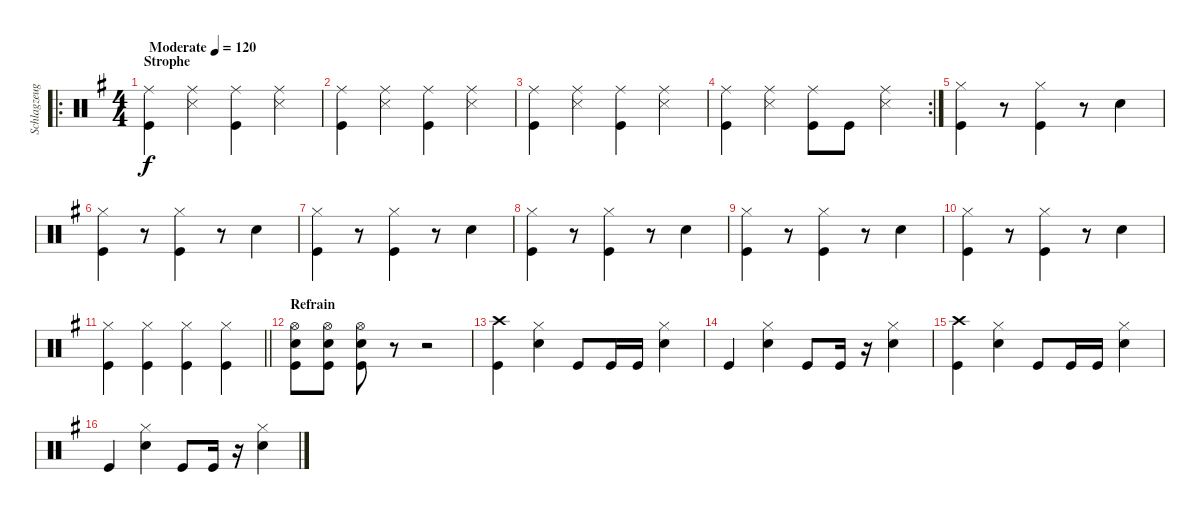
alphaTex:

\track ("Schlagzeug" "Schlagzeug") {instrument percussion}
\staff {score}
\articulation defaults
\ro
\ts (4 4)
\section ("" "Strophe")
\tempo (120 "Moderate")
\clef neutral
\ks g
("Kick (hit)" "Ride (middle)").4{dy f} ("Snare (side stick) 3" "Ride (middle)").4 ("Kick (hit)" "Ride (middle)").4 ("Snare (side stick) 3" "Ride (middle)").4 |
("Kick (hit)" "Ride (middle)").4 ("Snare (side stick) 3" "Ride (middle)").4 ("Kick (hit)" "Ride (middle)").4 ("Snare (side stick) 3" "Ride (middle)").4 |
("Kick (hit)" "Ride (middle)").4 ("Snare (side stick) 3" "Ride (middle)").4 ("Kick (hit)" "Ride (middle)").4 ("Snare (side stick) 3" "Ride (middle)").4 |
\rc 2
("Kick (hit)" "Ride (middle)").4 ("Snare (side stick) 3" "Ride (middle)").4 ("Kick (hit)" "Ride (middle)").8 "Kick (hit)".8 ("Snare (side stick) 3" "Ride (middle)").4 |
("Kick (hit)" "Hi-Hat (closed)").4 r.8 ("Kick (hit)" "Hi-Hat (closed)").4 r.8 "Snare (hit) 2".4 |
("Kick (hit)" "Hi-Hat (closed)").4 r.8 ("Kick (hit)" "Hi-Hat (closed)").4 r.8 "Snare (hit) 2".4 |
("Kick (hit)" "Hi-Hat (closed)").4 r.8 ("Kick (hit)" "Hi-Hat (closed)").4 r.8 "Snare (hit) 2".4 |
("Kick (hit)" "Hi-Hat (closed)").4 r.8 ("Kick (hit)" "Hi-Hat (closed)").4 r.8 "Snare (hit) 2".4 |
("Kick (hit)" "Hi-Hat (closed)").4 r.8 ("Kick (hit)" "Hi-Hat (closed)").4 r.8 "Snare (hit) 2".4 |
("Kick (hit)" "Hi-Hat (closed)").4 r.8 ("Kick (hit)" "Hi-Hat (closed)").4 r.8 "Snare (hit) 2".4 |
\barLineRight lightlight
("Kick (hit)" "Hi-Hat (closed)").4 ("Kick (hit)" "Hi-Hat (closed)").4 ("Kick (hit)" "Hi-Hat (closed)").4 ("Kick (hit)" "Hi-Hat (closed)").4 |
\section ("" "Refrain")
("Kick (hit)" "Snare (hit) 2" "Hi-Hat (open)").8 ("Kick (hit)" "Snare (hit) 2" "Hi-Hat (open)").8 ("Kick (hit)" "Snare (hit) 2" "Hi-Hat (open)").8 r.8 r.2 |
("Crash high (hit)" "Kick (hit)").4 ("Snare (hit) 2" "Hi-Hat (closed)").4 "Kick (hit)".8 "Kick (hit)".16 "Kick (hit)".16 ("Snare (hit) 2" "Hi-Hat (closed)").4 |
"Kick (hit)".4 ("Snare (hit) 2" "Hi-Hat (closed)").4 "Kick (hit)".8 "Kick (hit)".16 r.16 ("Snare (hit) 2" "Hi-Hat (closed)").4 |
("Crash high (hit)" "Kick (hit)").4 ("Snare (hit) 2" "Hi-Hat (closed)").4 "Kick (hit)".8 "Kick (hit)".16 "Kick (hit)".16 ("Snare (hit) 2" "Hi-Hat (closed)").4 |
"Kick (hit)".4 ("Snare (hit) 2" "Hi-Hat (closed)").4 "Kick (hit)".8 "Kick (hit)".16 r.16 ("Snare (hit) 2" "Hi-Hat (closed)").4
